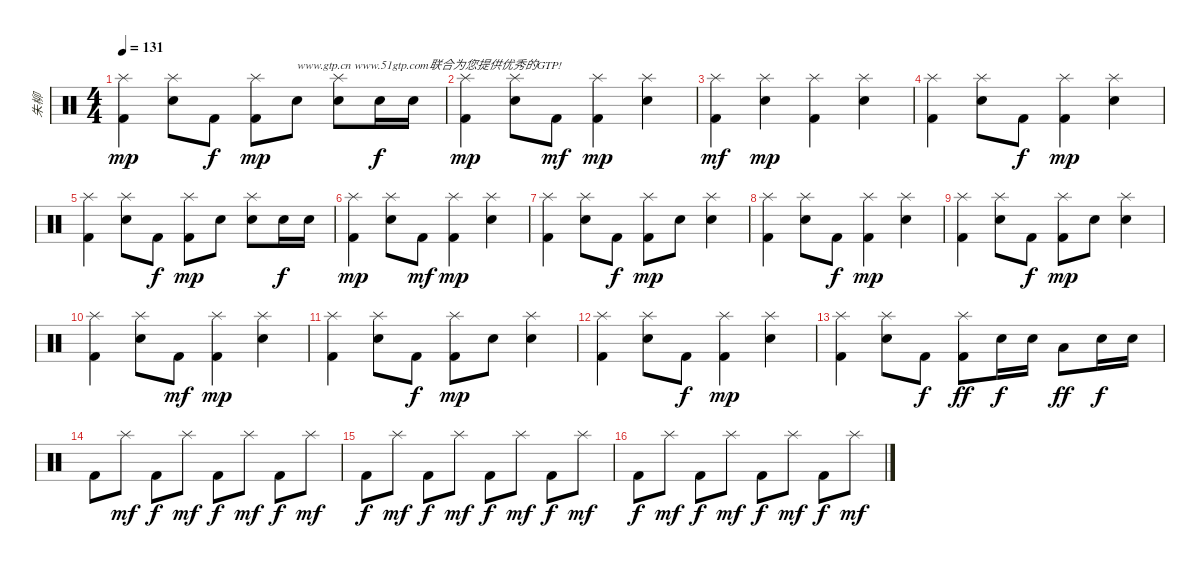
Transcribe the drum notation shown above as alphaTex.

\track ("朱柳" "朱柳") {instrument percussion}
\staff {score}
\articulation defaults
\ts (4 4)
\tempo 131
\clef neutral
\ks c
("Splash (hit)" "Kick (hit) 2").4{dy mp} ("Splash (hit)" "Electric Snare (hit)").8 "Kick (hit) 2".8{dy f} ("Splash (hit)" "Kick (hit) 2").8{dy mp} "Electric Snare (hit)".8{txt "www.gtp.cn www.51gtp.com联合为您提供优秀的GTP!"} ("Splash (hit)" "Electric Snare (hit)").8 "Electric Snare (hit)".16{dy f} "Electric Snare (hit)".16 |
("Splash (hit)" "Kick (hit) 2").4{dy mp} ("Splash (hit)" "Electric Snare (hit)").8 "Kick (hit) 2".8{dy mf} ("Splash (hit)" "Kick (hit) 2").4{dy mp} ("Splash (hit)" "Electric Snare (hit)").4 |
("Splash (hit)" "Kick (hit) 2").4{dy mf} ("Splash (hit)" "Electric Snare (hit)").4{dy mp} ("Splash (hit)" "Kick (hit) 2").4 ("Splash (hit)" "Electric Snare (hit)").4 |
("Splash (hit)" "Kick (hit) 2").4 ("Splash (hit)" "Electric Snare (hit)").8 "Kick (hit) 2".8{dy f} ("Splash (hit)" "Kick (hit) 2").4{dy mp} ("Splash (hit)" "Electric Snare (hit)").4 |
("Splash (hit)" "Kick (hit) 2").4 ("Splash (hit)" "Electric Snare (hit)").8 "Kick (hit) 2".8{dy f} ("Splash (hit)" "Kick (hit) 2").8{dy mp} "Electric Snare (hit)".8 ("Splash (hit)" "Electric Snare (hit)").8 "Electric Snare (hit)".16{dy f} "Electric Snare (hit)".16 |
("Splash (hit)" "Kick (hit) 2").4{dy mp} ("Splash (hit)" "Electric Snare (hit)").8 "Kick (hit) 2".8{dy mf} ("Splash (hit)" "Kick (hit) 2").4{dy mp} ("Splash (hit)" "Electric Snare (hit)").4 |
("Splash (hit)" "Kick (hit) 2").4 ("Splash (hit)" "Electric Snare (hit)").8 "Kick (hit) 2".8{dy f} ("Splash (hit)" "Kick (hit) 2").8{dy mp} "Electric Snare (hit)".8 ("Splash (hit)" "Electric Snare (hit)").4 |
("Splash (hit)" "Kick (hit) 2").4 ("Splash (hit)" "Electric Snare (hit)").8 "Kick (hit) 2".8{dy f} ("Splash (hit)" "Kick (hit) 2").4{dy mp} ("Splash (hit)" "Electric Snare (hit)").4 |
("Splash (hit)" "Kick (hit) 2").4 ("Splash (hit)" "Electric Snare (hit)").8 "Kick (hit) 2".8{dy f} ("Splash (hit)" "Kick (hit) 2").8{dy mp} "Electric Snare (hit)".8 ("Splash (hit)" "Electric Snare (hit)").4 |
("Splash (hit)" "Kick (hit) 2").4 ("Splash (hit)" "Electric Snare (hit)").8 "Kick (hit) 2".8{dy mf} ("Splash (hit)" "Kick (hit) 2").4{dy mp} ("Splash (hit)" "Electric Snare (hit)").4 |
("Splash (hit)" "Kick (hit) 2").4 ("Splash (hit)" "Electric Snare (hit)").8 "Kick (hit) 2".8{dy f} ("Splash (hit)" "Kick (hit) 2").8{dy mp} "Electric Snare (hit)".8 ("Splash (hit)" "Electric Snare (hit)").4 |
("Splash (hit)" "Kick (hit) 2").4 ("Splash (hit)" "Electric Snare (hit)").8 "Kick (hit) 2".8{dy f} ("Splash (hit)" "Kick (hit) 2").4{dy mp} ("Splash (hit)" "Electric Snare (hit)").4 |
("Splash (hit)" "Kick (hit) 2").4 ("Splash (hit)" "Electric Snare (hit)").8 "Kick (hit) 2".8{dy f} ("Splash (hit)" "Kick (hit) 2").8{dy ff} "Electric Snare (hit)".16{dy f} "Electric Snare (hit)".16 "Low Tom (hit)".8{dy ff} "Electric Snare (hit)".16{dy f} "Electric Snare (hit)".16 |
"Kick (hit) 2".8 "Splash (hit)".8{dy mf} "Kick (hit) 2".8{dy f} "Splash (hit)".8{dy mf} "Kick (hit) 2".8{dy f} "Splash (hit)".8{dy mf} "Kick (hit) 2".8{dy f} "Splash (hit)".8{dy mf} |
"Kick (hit) 2".8{dy f} "Splash (hit)".8{dy mf} "Kick (hit) 2".8{dy f} "Splash (hit)".8{dy mf} "Kick (hit) 2".8{dy f} "Splash (hit)".8{dy mf} "Kick (hit) 2".8{dy f} "Splash (hit)".8{dy mf} |
"Kick (hit) 2".8{dy f} "Splash (hit)".8{dy mf} "Kick (hit) 2".8{dy f} "Splash (hit)".8{dy mf} "Kick (hit) 2".8{dy f} "Splash (hit)".8{dy mf} "Kick (hit) 2".8{dy f} "Splash (hit)".8{dy mf}
